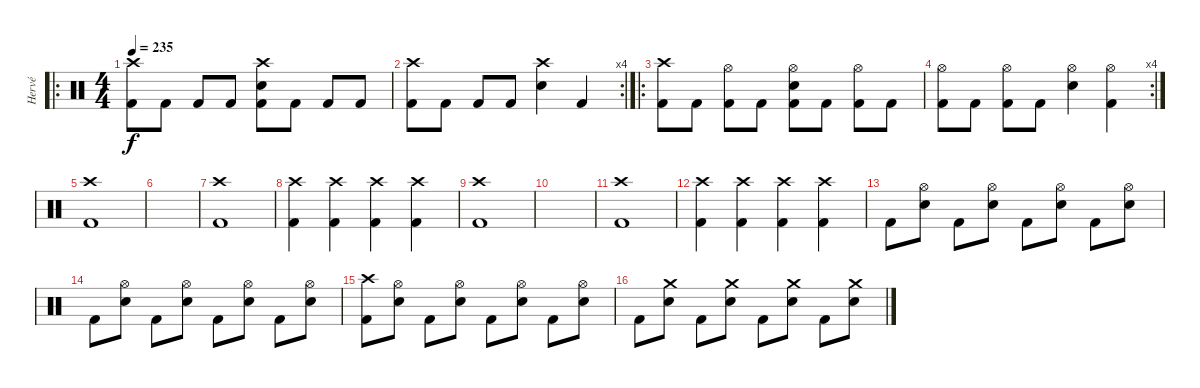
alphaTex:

\track ("Hervé" "Hervé") {instrument percussion}
\staff {score}
\articulation defaults
\ro
\ts (4 4)
\tempo 235
\clef neutral
\ks c
("Crash high (hit)" "Kick (hit) 2").8{dy f} "Kick (hit) 2".8 "Kick (hit) 2".8 "Kick (hit) 2".8 ("Crash high (hit)" "Electric Snare (hit)" "Kick (hit) 2").8 "Kick (hit) 2".8 "Kick (hit) 2".8 "Kick (hit) 2".8 |
\rc 4
("Crash high (hit)" "Kick (hit) 2").8 "Kick (hit) 2".8 "Kick (hit) 2".8 "Kick (hit) 2".8 ("Crash high (hit)" "Electric Snare (hit)").4 "Kick (hit) 2".4 |
\ro
("Crash high (hit)" "Kick (hit) 2").8 "Kick (hit) 2".8 ("Hi-Hat (open)" "Kick (hit) 2").8 "Kick (hit) 2".8 ("Hi-Hat (open)" "Electric Snare (hit)" "Kick (hit) 2").8 "Kick (hit) 2".8 ("Hi-Hat (open)" "Kick (hit) 2").8 "Kick (hit) 2".8 |
\rc 4
("Hi-Hat (open)" "Kick (hit) 2").8 "Kick (hit) 2".8 ("Hi-Hat (open)" "Kick (hit) 2").8 "Kick (hit) 2".8 ("Hi-Hat (open)" "Electric Snare (hit)").4 ("Hi-Hat (open)" "Kick (hit) 2").4 |
("Crash high (hit)" "Kick (hit) 2").1 |
|
("Crash high (hit)" "Kick (hit) 2").1 |
("Crash high (hit)" "Kick (hit) 2").4 ("Crash high (hit)" "Kick (hit) 2").4 ("Crash high (hit)" "Kick (hit) 2").4 ("Crash high (hit)" "Kick (hit) 2").4 |
("Crash high (hit)" "Kick (hit) 2").1 |
|
("Crash high (hit)" "Kick (hit) 2").1 |
("Crash high (hit)" "Kick (hit) 2").4 ("Crash high (hit)" "Kick (hit) 2").4 ("Crash high (hit)" "Kick (hit) 2").4 ("Crash high (hit)" "Kick (hit) 2").4 |
"Kick (hit) 2".8 ("Hi-Hat (open)" "Electric Snare (hit)").8 "Kick (hit) 2".8 ("Hi-Hat (open)" "Electric Snare (hit)").8 "Kick (hit) 2".8 ("Hi-Hat (open)" "Electric Snare (hit)").8 "Kick (hit) 2".8 ("Hi-Hat (open)" "Electric Snare (hit)").8 |
"Kick (hit) 2".8 ("Hi-Hat (open)" "Electric Snare (hit)").8 "Kick (hit) 2".8 ("Hi-Hat (open)" "Electric Snare (hit)").8 "Kick (hit) 2".8 ("Hi-Hat (open)" "Electric Snare (hit)").8 "Kick (hit) 2".8 ("Hi-Hat (open)" "Electric Snare (hit)").8 |
("Crash high (hit)" "Kick (hit) 2").8 ("Hi-Hat (open)" "Electric Snare (hit)").8 "Kick (hit) 2".8 ("Hi-Hat (open)" "Electric Snare (hit)").8 "Kick (hit) 2".8 ("Hi-Hat (open)" "Electric Snare (hit)").8 "Kick (hit) 2".8 ("Hi-Hat (open)" "Electric Snare (hit)").8 |
"Kick (hit) 2".8 ("Crash medium (hit)" "Electric Snare (hit)").8 "Kick (hit) 2".8 ("Crash medium (hit)" "Electric Snare (hit)").8 "Kick (hit) 2".8 ("Crash medium (hit)" "Electric Snare (hit)").8 "Kick (hit) 2".8 ("Crash medium (hit)" "Electric Snare (hit)").8
